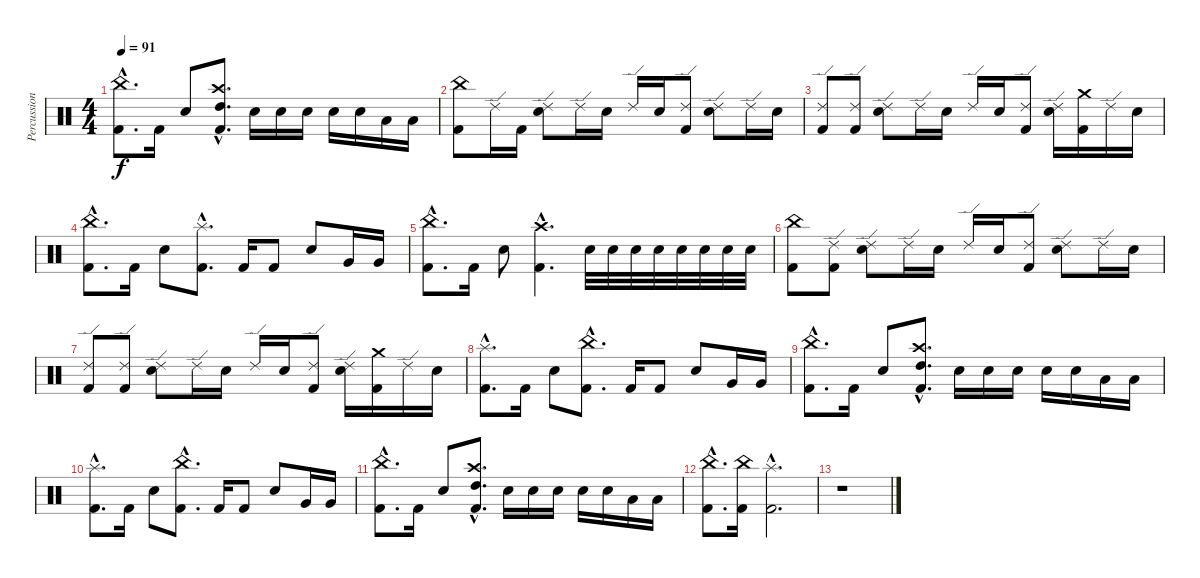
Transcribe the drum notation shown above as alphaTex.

\track ("Percussion" "Percussion") {instrument percussion}
\staff {score}
\articulation defaults
\ts (4 4)
\tempo 91
\clef neutral
\ks c
("China (hit)"{hac} "Kick (hit) 2"{hac}).8{d dy f} "Kick (hit) 2".16 "Electric Snare (hit)".8 ("Kick (hit) 2"{hac} "Crash high (hit)"{hac} "High Tom (hit)"{hac}).8{d} "Electric Snare (hit)".16 "Electric Snare (hit)".16 "Electric Snare (hit)".16 "Electric Snare (hit)".16 "Electric Snare (hit)".16 "Low Tom (hit)".16 "Low Tom (hit)".16 |
("Kick (hit) 2" "China (hit)").8 "Ride (edge) 2".16 "Kick (hit) 2".16 ("Ride (edge) 2" "Electric Snare (hit)").8 "Ride (edge) 2".16 "Electric Snare (hit)".16 "Ride (edge) 2".16 "Electric Snare (hit)".16 ("Kick (hit) 2" "Ride (edge) 2").8 ("Electric Snare (hit)" "Ride (edge) 2").8 "Ride (edge) 2".16 "Electric Snare (hit)".16 |
("Ride (edge) 2" "Kick (hit) 2").8 ("Ride (edge) 2" "Kick (hit) 2").8 ("Electric Snare (hit)" "Ride (edge) 2").8 "Ride (edge) 2".16 "Electric Snare (hit)".16 "Ride (edge) 2".16 "Electric Snare (hit)".16 ("Ride (edge) 2" "Kick (hit) 2").8 ("Ride (edge) 2" "Electric Snare (hit)").16 ("Crash medium (hit)" "Kick (hit) 2").16 "Ride (edge) 2".16 "Electric Snare (hit)".16 |
("China (hit)"{hac} "Kick (hit) 2"{hac}).8{d} "Kick (hit) 2".16 "Electric Snare (hit)".8 ("Splash (hit)"{hac} "Kick (hit) 2"{hac}).8{d} "Kick (hit) 2".16 "Kick (hit) 2".8 "Electric Snare (hit)".8 "Very Low Tom (hit)".16 "Very Low Tom (hit)".16 |
("China (hit)"{hac} "Kick (hit) 2"{hac}).8{d} "Kick (hit) 2".16 "Electric Snare (hit)".8 ("Kick (hit) 2"{hac} "Crash high (hit)"{hac}).4{d} "Electric Snare (hit)".32 "Electric Snare (hit)".32 "Electric Snare (hit)".32 "Electric Snare (hit)".32 "Electric Snare (hit)".32 "Electric Snare (hit)".32 "Electric Snare (hit)".32 "Electric Snare (hit)".32 |
("Kick (hit) 2" "China (hit)").8 ("Kick (hit) 2" "Ride (edge) 2").8 ("Electric Snare (hit)" "Ride (edge) 2").8 "Ride (edge) 2".16 "Electric Snare (hit)".16 "Ride (edge) 2".16 "Electric Snare (hit)".16 ("Kick (hit) 2" "Ride (edge) 2").8 ("Ride (edge) 2" "Electric Snare (hit)").8 "Ride (edge) 2".16 "Electric Snare (hit)".16 |
("Kick (hit) 2" "Ride (edge) 2").8 ("Ride (edge) 2" "Kick (hit) 2").8 ("Ride (edge) 2" "Electric Snare (hit)").8 "Ride (edge) 2".16 "Electric Snare (hit)".16 "Ride (edge) 2".16 "Electric Snare (hit)".16 ("Kick (hit) 2" "Ride (edge) 2").8 ("Electric Snare (hit)" "Ride (edge) 2").16 ("Crash medium (hit)" "Kick (hit) 2").16 "Ride (edge) 2".16 "Electric Snare (hit)".16 |
("Splash (hit)"{hac} "Kick (hit) 2"{hac}).8{d} "Kick (hit) 2".16 "Electric Snare (hit)".8 ("Kick (hit) 2"{hac} "China (hit)"{hac}).8{d} "Kick (hit) 2".16 "Kick (hit) 2".8 "Electric Snare (hit)".8 "Very Low Tom (hit)".16 "Very Low Tom (hit)".16 |
("China (hit)"{hac} "Kick (hit) 2"{hac}).8{d} "Kick (hit) 2".16 "Electric Snare (hit)".8 ("Crash high (hit)"{hac} "High Tom (hit)"{hac} "Kick (hit) 2"{hac}).8{d} "Electric Snare (hit)".16 "Electric Snare (hit)".16 "Electric Snare (hit)".16 "Electric Snare (hit)".16 "Electric Snare (hit)".16 "Low Tom (hit)".16 "Low Tom (hit)".16 |
("Kick (hit) 2"{hac} "Splash (hit)"{hac}).8{d} "Kick (hit) 2".16 "Electric Snare (hit)".8 ("China (hit)"{hac} "Kick (hit) 2"{hac}).8{d} "Kick (hit) 2".16 "Kick (hit) 2".8 "Electric Snare (hit)".8 "Very Low Tom (hit)".16 "Very Low Tom (hit)".16 |
("China (hit)"{hac} "Kick (hit) 2"{hac}).8{d} "Kick (hit) 2".16 "Electric Snare (hit)".8 ("Kick (hit) 2"{hac} "High Tom (hit)"{hac} "Crash high (hit)"{hac}).8{d} "Electric Snare (hit)".16 "Electric Snare (hit)".16 "Electric Snare (hit)".16 "Electric Snare (hit)".16 "Electric Snare (hit)".16 "Low Tom (hit)".16 "Low Tom (hit)".16 |
("Kick (hit) 2"{hac} "China (hit)"{hac}).8{d} ("Kick (hit) 2" "China (hit)").16 ("Splash (hit)"{hac} "Kick (hit) 2"{hac}).2{d} |
r.1
